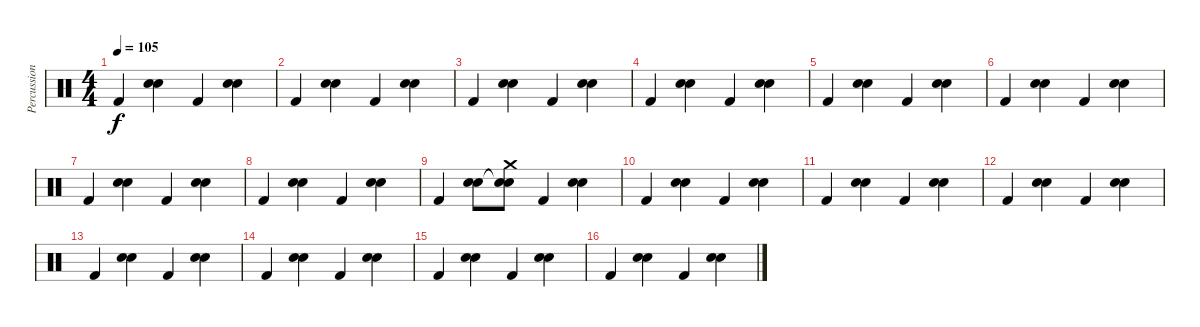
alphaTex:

\track ("Percussion" "Percussion") {instrument percussion}
\staff {score}
\articulation defaults
\ts (4 4)
\tempo 105
\clef neutral
\ks c "Kick (hit) 2".4{dy f}
("Snare (hit) 2" "Hand Clap (hit)").4 "Kick (hit) 2".4 ("Snare (hit) 2" "Hand Clap (hit)").4 |
"Kick (hit) 2".4 ("Snare (hit) 2" "Hand Clap (hit)").4 "Kick (hit) 2".4 ("Snare (hit) 2" "Hand Clap (hit)").4 |
"Kick (hit) 2".4 ("Snare (hit) 2" "Hand Clap (hit)").4 "Kick (hit) 2".4 ("Snare (hit) 2" "Hand Clap (hit)").4 |
"Kick (hit) 2".4 ("Snare (hit) 2" "Hand Clap (hit)").4 "Kick (hit) 2".4 ("Snare (hit) 2" "Hand Clap (hit)").4 |
"Kick (hit) 2".4 ("Snare (hit) 2" "Hand Clap (hit)").4 "Kick (hit) 2".4 ("Snare (hit) 2" "Hand Clap (hit)").4 |
"Kick (hit) 2".4 ("Snare (hit) 2" "Hand Clap (hit)").4 "Kick (hit) 2".4 ("Snare (hit) 2" "Hand Clap (hit)").4 |
"Kick (hit) 2".4 ("Snare (hit) 2" "Hand Clap (hit)").4 "Kick (hit) 2".4 ("Snare (hit) 2" "Hand Clap (hit)").4 |
"Kick (hit) 2".4 ("Snare (hit) 2" "Hand Clap (hit)").4 "Kick (hit) 2".4 ("Snare (hit) 2" "Hand Clap (hit)").4 |
"Kick (hit) 2".4 ("Snare (hit) 2" "Hand Clap (hit)").8 ("Snare (hit)"{t} "Snare (hit)"{t} "Crash medium (hit)").8 "Kick (hit) 2".4 ("Snare (hit) 2" "Hand Clap (hit)").4 |
"Kick (hit) 2".4 ("Snare (hit) 2" "Hand Clap (hit)").4 "Kick (hit) 2".4 ("Snare (hit) 2" "Hand Clap (hit)").4 |
"Kick (hit) 2".4 ("Snare (hit) 2" "Hand Clap (hit)").4 "Kick (hit) 2".4 ("Snare (hit) 2" "Hand Clap (hit)").4 |
"Kick (hit) 2".4 ("Snare (hit) 2" "Hand Clap (hit)").4 "Kick (hit) 2".4 ("Snare (hit) 2" "Hand Clap (hit)").4 |
"Kick (hit) 2".4 ("Snare (hit) 2" "Hand Clap (hit)").4 "Kick (hit) 2".4 ("Snare (hit) 2" "Hand Clap (hit)").4 |
"Kick (hit) 2".4 ("Snare (hit) 2" "Hand Clap (hit)").4 "Kick (hit) 2".4 ("Snare (hit) 2" "Hand Clap (hit)").4 |
"Kick (hit) 2".4 ("Snare (hit) 2" "Hand Clap (hit)").4 "Kick (hit) 2".4 ("Snare (hit) 2" "Hand Clap (hit)").4 |
"Kick (hit) 2".4 ("Snare (hit) 2" "Hand Clap (hit)").4 "Kick (hit) 2".4 ("Snare (hit) 2" "Hand Clap (hit)").4
